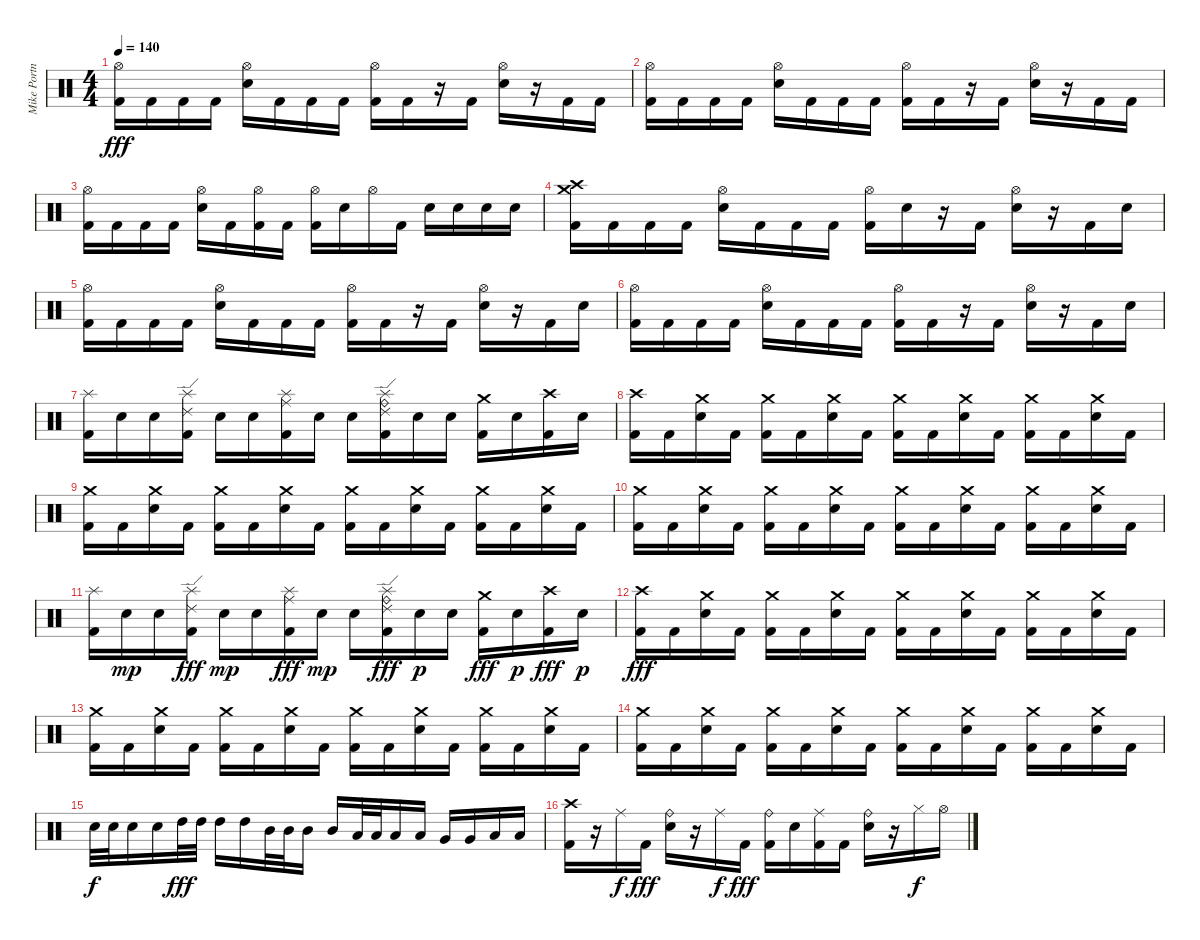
\track ("Mike Portnoy" "Mike Portn") {instrument percussion}
\staff {score}
\articulation defaults
\ts (4 4)
\tempo 140
\clef neutral
\ks c
("Hi-Hat (open)" "Kick (hit) 2").16{dy fff} "Kick (hit) 2".16 "Kick (hit) 2".16 "Kick (hit) 2".16 ("Hi-Hat (open)" "Electric Snare (hit)").16 "Kick (hit) 2".16 "Kick (hit) 2".16 "Kick (hit) 2".16 ("Hi-Hat (open)" "Kick (hit) 2").16 "Kick (hit) 2".16 r.16 "Kick (hit) 2".16 ("Hi-Hat (open)" "Electric Snare (hit)").16 r.16 "Kick (hit) 2".16 "Kick (hit) 2".16 |
("Hi-Hat (open)" "Kick (hit) 2").16 "Kick (hit) 2".16 "Kick (hit) 2".16 "Kick (hit) 2".16 ("Hi-Hat (open)" "Electric Snare (hit)").16 "Kick (hit) 2".16 "Kick (hit) 2".16 "Kick (hit) 2".16 ("Hi-Hat (open)" "Kick (hit) 2").16 "Kick (hit) 2".16 r.16 "Kick (hit) 2".16 ("Hi-Hat (open)" "Electric Snare (hit)").16 r.16 "Kick (hit) 2".16 "Kick (hit) 2".16 |
("Hi-Hat (open)" "Kick (hit) 2").16 "Kick (hit) 2".16 "Kick (hit) 2".16 "Kick (hit) 2".16 ("Hi-Hat (open)" "Electric Snare (hit)").16 "Kick (hit) 2".16 ("Hi-Hat (open)" "Kick (hit) 2").16 "Kick (hit) 2".16 ("Hi-Hat (open)" "Kick (hit) 2").16 "Electric Snare (hit)".16 "Hi-Hat (open)".16 "Kick (hit) 2".16 "Electric Snare (hit)".16 "Electric Snare (hit)".16 "Electric Snare (hit)".16 "Electric Snare (hit)".16 |
("Crash high (hit)" "Crash medium (hit)" "Kick (hit) 2").16 "Kick (hit) 2".16 "Kick (hit) 2".16 "Kick (hit) 2".16 ("Hi-Hat (open)" "Electric Snare (hit)").16 "Kick (hit) 2".16 "Kick (hit) 2".16 "Kick (hit) 2".16 ("Hi-Hat (open)" "Kick (hit) 2").16 "Electric Snare (hit)".16 r.16 "Kick (hit) 2".16 ("Hi-Hat (open)" "Electric Snare (hit)").16 r.16 "Kick (hit) 2".16 "Electric Snare (hit)".16 |
("Hi-Hat (open)" "Kick (hit) 2").16 "Kick (hit) 2".16 "Kick (hit) 2".16 "Kick (hit) 2".16 ("Hi-Hat (open)" "Electric Snare (hit)").16 "Kick (hit) 2".16 "Kick (hit) 2".16 "Kick (hit) 2".16 ("Hi-Hat (open)" "Kick (hit) 2").16 "Kick (hit) 2".16 r.16 "Kick (hit) 2".16 ("Hi-Hat (open)" "Electric Snare (hit)").16 r.16 "Kick (hit) 2".16 "Electric Snare (hit)".16 |
("Hi-Hat (open)" "Kick (hit) 2").16 "Kick (hit) 2".16 "Kick (hit) 2".16 "Kick (hit) 2".16 ("Hi-Hat (open)" "Electric Snare (hit)").16 "Kick (hit) 2".16 "Kick (hit) 2".16 "Kick (hit) 2".16 ("Hi-Hat (open)" "Kick (hit) 2").16 "Kick (hit) 2".16 r.16 "Kick (hit) 2".16 ("Hi-Hat (open)" "Electric Snare (hit)").16 r.16 "Kick (hit) 2".16 "Electric Snare (hit)".16 |
("Splash (hit)" "Kick (hit) 2").16 "Electric Snare (hit)".16 "Electric Snare (hit)".16 ("Ride (edge) 2" "Splash (hit)" "Kick (hit) 2").16 "Electric Snare (hit)".16 "Electric Snare (hit)".16 ("Ride (middle)" "Splash (hit)" "Kick (hit) 2").16 "Electric Snare (hit)".16 "Electric Snare (hit)".16 ("Ride (bell)" "Ride (edge) 2" "Splash (hit)" "Kick (hit) 2").16 "Electric Snare (hit)".16 "Electric Snare (hit)".16 ("Crash medium (hit)" "Kick (hit) 2").16 "Electric Snare (hit)".16 ("Crash high (hit)" "Kick (hit) 2").16 "Electric Snare (hit)".16 |
("Crash high (hit)" "Kick (hit) 2").16 "Kick (hit) 2".16 ("Crash medium (hit)" "Electric Snare (hit)").16 "Kick (hit) 2".16 ("Crash medium (hit)" "Kick (hit) 2").16 "Kick (hit) 2".16 ("Crash medium (hit)" "Electric Snare (hit)").16 "Kick (hit) 2".16 ("Crash medium (hit)" "Kick (hit) 2").16 "Kick (hit) 2".16 ("Crash medium (hit)" "Electric Snare (hit)").16 "Kick (hit) 2".16 ("Crash medium (hit)" "Kick (hit) 2").16 "Kick (hit) 2".16 ("Crash medium (hit)" "Electric Snare (hit)").16 "Kick (hit) 2".16 |
("Crash medium (hit)" "Kick (hit) 2").16 "Kick (hit) 2".16 ("Crash medium (hit)" "Electric Snare (hit)").16 "Kick (hit) 2".16 ("Crash medium (hit)" "Kick (hit) 2").16 "Kick (hit) 2".16 ("Crash medium (hit)" "Electric Snare (hit)").16 "Kick (hit) 2".16 ("Crash medium (hit)" "Kick (hit) 2").16 "Kick (hit) 2".16 ("Crash medium (hit)" "Electric Snare (hit)").16 "Kick (hit) 2".16 ("Crash medium (hit)" "Kick (hit) 2").16 "Kick (hit) 2".16 ("Crash medium (hit)" "Electric Snare (hit)").16 "Kick (hit) 2".16 |
("Crash medium (hit)" "Kick (hit) 2").16 "Kick (hit) 2".16 ("Crash medium (hit)" "Electric Snare (hit)").16 "Kick (hit) 2".16 ("Crash medium (hit)" "Kick (hit) 2").16 "Kick (hit) 2".16 ("Crash medium (hit)" "Electric Snare (hit)").16 "Kick (hit) 2".16 ("Crash medium (hit)" "Kick (hit) 2").16 "Kick (hit) 2".16 ("Crash medium (hit)" "Electric Snare (hit)").16 "Kick (hit) 2".16 ("Crash medium (hit)" "Kick (hit) 2").16 "Kick (hit) 2".16 ("Crash medium (hit)" "Electric Snare (hit)").16 "Kick (hit) 2".16 |
("Splash (hit)" "Kick (hit) 2").16 "Electric Snare (hit)".16{dy mp} "Electric Snare (hit)".16 ("Ride (edge) 2" "Splash (hit)" "Kick (hit) 2").16{dy fff} "Electric Snare (hit)".16{dy mp} "Electric Snare (hit)".16 ("Ride (middle)" "Splash (hit)" "Kick (hit) 2").16{dy fff} "Electric Snare (hit)".16{dy mp} "Electric Snare (hit)".16 ("Ride (bell)" "Ride (edge) 2" "Splash (hit)" "Kick (hit) 2").16{dy fff} "Electric Snare (hit)".16{dy p} "Electric Snare (hit)".16 ("Crash medium (hit)" "Kick (hit) 2").16{dy fff} "Electric Snare (hit)".16{dy p} ("Crash high (hit)" "Kick (hit) 2").16{dy fff} "Electric Snare (hit)".16{dy p} |
("Crash high (hit)" "Kick (hit) 2").16{dy fff} "Kick (hit) 2".16 ("Crash medium (hit)" "Electric Snare (hit)").16 "Kick (hit) 2".16 ("Crash medium (hit)" "Kick (hit) 2").16 "Kick (hit) 2".16 ("Crash medium (hit)" "Electric Snare (hit)").16 "Kick (hit) 2".16 ("Crash medium (hit)" "Kick (hit) 2").16 "Kick (hit) 2".16 ("Crash medium (hit)" "Electric Snare (hit)").16 "Kick (hit) 2".16 ("Crash medium (hit)" "Kick (hit) 2").16 "Kick (hit) 2".16 ("Crash medium (hit)" "Electric Snare (hit)").16 "Kick (hit) 2".16 |
("Crash medium (hit)" "Kick (hit) 2").16 "Kick (hit) 2".16 ("Crash medium (hit)" "Electric Snare (hit)").16 "Kick (hit) 2".16 ("Crash medium (hit)" "Kick (hit) 2").16 "Kick (hit) 2".16 ("Crash medium (hit)" "Electric Snare (hit)").16 "Kick (hit) 2".16 ("Crash medium (hit)" "Kick (hit) 2").16 "Kick (hit) 2".16 ("Crash medium (hit)" "Electric Snare (hit)").16 "Kick (hit) 2".16 ("Crash medium (hit)" "Kick (hit) 2").16 "Kick (hit) 2".16 ("Crash medium (hit)" "Electric Snare (hit)").16 "Kick (hit) 2".16 |
("Crash medium (hit)" "Kick (hit) 2").16 "Kick (hit) 2".16 ("Crash medium (hit)" "Electric Snare (hit)").16 "Kick (hit) 2".16 ("Crash medium (hit)" "Kick (hit) 2").16 "Kick (hit) 2".16 ("Crash medium (hit)" "Electric Snare (hit)").16 "Kick (hit) 2".16 ("Crash medium (hit)" "Kick (hit) 2").16 "Kick (hit) 2".16 ("Crash medium (hit)" "Electric Snare (hit)").16 "Kick (hit) 2".16 ("Crash medium (hit)" "Kick (hit) 2").16 "Kick (hit) 2".16 ("Crash medium (hit)" "Electric Snare (hit)").16 "Kick (hit) 2".16 |
"Electric Snare (hit)".32{dy f} "Electric Snare (hit)".32 "Electric Snare (hit)".16 "Electric Snare (hit)".16 "High Tom (hit)".32{dy fff} "High Tom (hit)".32 "High Tom (hit)".16 "High Tom (hit)".16 "Mid Tom (hit)".32 "Mid Tom (hit)".32 "Mid Tom (hit)".16 "Mid Tom (hit)".16 "Low Tom (hit)".32 "Low Tom (hit)".32 "Low Tom (hit)".16 "Low Tom (hit)".16 "Very Low Tom (hit)".16 "Very Low Tom (hit)".16 "Low Floor Tom (hit)".16 "Low Floor Tom (hit)".16 |
("Crash high (hit)" "Kick (hit) 2").16 r.16 "Ride (middle)".16{dy f} "Kick (hit) 2".16{dy fff} ("Ride (bell)" "Electric Snare (hit)").16 r.16 "Ride (middle)".16{dy f} "Kick (hit) 2".16{dy fff} ("Ride (bell)" "Kick (hit) 2").16 "Electric Snare (hit)".16 ("Ride (middle)" "Kick (hit) 2").16 "Kick (hit) 2".16 ("Ride (bell)" "Electric Snare (hit)").16 r.16 "Hi-Hat (closed)".16{dy f} "Hi-Hat (open)".16
